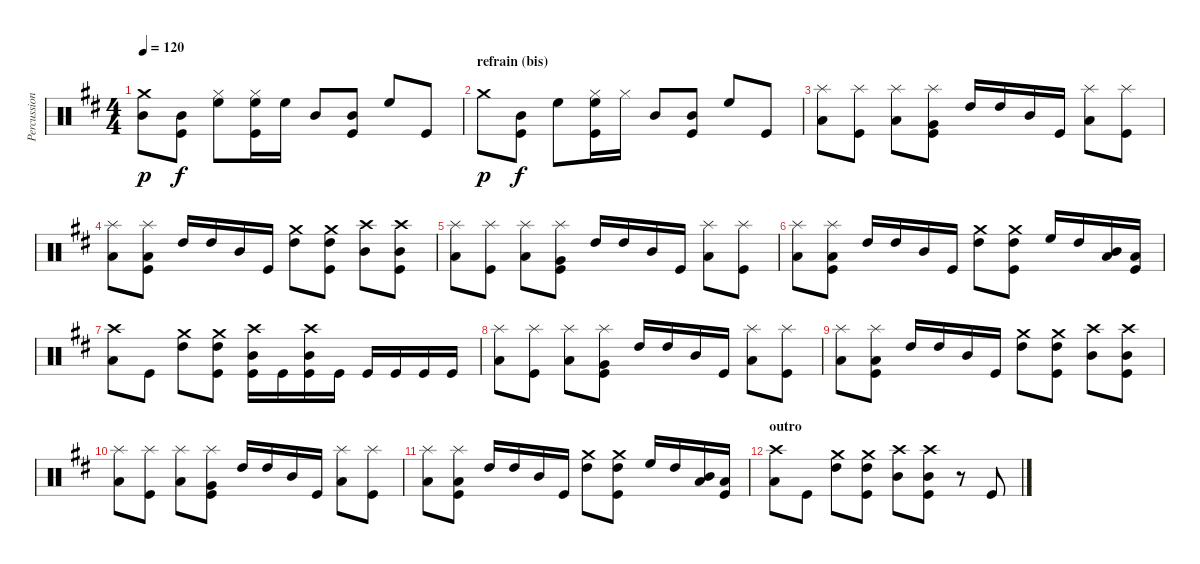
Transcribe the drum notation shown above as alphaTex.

\track ("Percussions" "Percussion") {instrument percussion}
\staff {score}
\articulation defaults
\ts (4 4)
\tempo 120
\clef neutral
\ks d
("Crash medium (hit)" "Mid Tom (hit)").8{dy p} ("Mid Tom (hit)" "Kick (hit)").8{dy f} ("Hi-Hat (closed)" "High Floor Tom (hit)").8 ("Hi-Hat (closed)" "High Floor Tom (hit)" "Kick (hit)").16 "High Floor Tom (hit)".16 "Mid Tom (hit)".8 ("Mid Tom (hit)" "Kick (hit)").8 "High Floor Tom (hit)".8 "Kick (hit)".8 |
\section ("" "refrain (bis)")
"Crash medium (hit)".8{dy p} ("Mid Tom (hit)" "Kick (hit)").8{dy f} "High Floor Tom (hit)".8 ("Hi-Hat (closed)" "High Floor Tom (hit)" "Kick (hit)").16 "Hi-Hat (closed)".16 "Mid Tom (hit)".8 ("Mid Tom (hit)" "Kick (hit)").8 "High Floor Tom (hit)".8 "Kick (hit)".8 |
("Splash (hit)" "Low Floor Tom (hit)").8 ("Splash (hit)" "Kick (hit)").8 ("Splash (hit)" "Low Floor Tom (hit)").8 ("Splash (hit)" "Very Low Tom (hit)" "Kick (hit)").8 "High Tom (hit)".16 "High Tom (hit)".16 "Mid Tom (hit)".16 "Kick (hit)".16 ("Splash (hit)" "Low Floor Tom (hit)").8 ("Splash (hit)" "Kick (hit)").8 |
("Splash (hit)" "Low Floor Tom (hit)").8 ("Splash (hit)" "Low Tom (hit)" "Kick (hit)").8 "High Tom (hit)".16 "High Tom (hit)".16 "Mid Tom (hit)".16 "Kick (hit)".16 ("Crash medium (hit)" "High Tom (hit)").8 ("Crash medium (hit)" "High Tom (hit)" "Kick (hit)").8 ("Crash high (hit)" "Mid Tom (hit)").8 ("Crash high (hit)" "Mid Tom (hit)" "Kick (hit)").8 |
("Splash (hit)" "Low Floor Tom (hit)").8 ("Splash (hit)" "Kick (hit)").8 ("Splash (hit)" "Low Floor Tom (hit)").8 ("Splash (hit)" "Very Low Tom (hit)" "Kick (hit)").8 "High Tom (hit)".16 "High Tom (hit)".16 "Mid Tom (hit)".16 "Kick (hit)".16 ("Splash (hit)" "Low Floor Tom (hit)").8 ("Splash (hit)" "Kick (hit)").8 |
("Splash (hit)" "Low Floor Tom (hit)").8 ("Splash (hit)" "Low Tom (hit)" "Kick (hit)").8 "High Tom (hit)".16 "High Tom (hit)".16 "Mid Tom (hit)".16 "Kick (hit)".16 ("Crash medium (hit)" "High Tom (hit)").8 ("Crash medium (hit)" "High Tom (hit)" "Kick (hit)").8 "High Floor Tom (hit)".16 "High Tom (hit)".16 ("Low Floor Tom (hit)" "Mid Tom (hit)").16 ("Low Tom (hit)" "Kick (hit)").16 |
("Crash high (hit)" "Low Floor Tom (hit)").8 "Kick (hit)".8 ("Crash medium (hit)" "High Tom (hit)").8 ("Crash medium (hit)" "High Tom (hit)" "Kick (hit)").8 ("Crash high (hit)" "Mid Tom (hit)" "Kick (hit)").16 "Kick (hit)".16 ("Crash high (hit)" "Mid Tom (hit)" "Kick (hit)").16 "Kick (hit)".16 "Kick (hit)".16 "Kick (hit)".16 "Kick (hit)".16 "Kick (hit)".16 |
("Splash (hit)" "Low Floor Tom (hit)").8 ("Splash (hit)" "Kick (hit)").8 ("Splash (hit)" "Low Floor Tom (hit)").8 ("Splash (hit)" "Very Low Tom (hit)" "Kick (hit)").8 "High Tom (hit)".16 "High Tom (hit)".16 "Mid Tom (hit)".16 "Kick (hit)".16 ("Splash (hit)" "Low Floor Tom (hit)").8 ("Splash (hit)" "Kick (hit)").8 |
("Splash (hit)" "Low Floor Tom (hit)").8 ("Splash (hit)" "Low Tom (hit)" "Kick (hit)").8 "High Tom (hit)".16 "High Tom (hit)".16 "Mid Tom (hit)".16 "Kick (hit)".16 ("Crash medium (hit)" "High Tom (hit)").8 ("Crash medium (hit)" "High Tom (hit)" "Kick (hit)").8 ("Crash high (hit)" "Mid Tom (hit)").8 ("Crash high (hit)" "Mid Tom (hit)" "Kick (hit)").8 |
("Splash (hit)" "Low Floor Tom (hit)").8 ("Splash (hit)" "Kick (hit)").8 ("Splash (hit)" "Low Floor Tom (hit)").8 ("Splash (hit)" "Very Low Tom (hit)" "Kick (hit)").8 "High Tom (hit)".16 "High Tom (hit)".16 "Mid Tom (hit)".16 "Kick (hit)".16 ("Splash (hit)" "Low Floor Tom (hit)").8 ("Splash (hit)" "Kick (hit)").8 |
("Splash (hit)" "Low Floor Tom (hit)").8 ("Splash (hit)" "Low Tom (hit)" "Kick (hit)").8 "High Tom (hit)".16 "High Tom (hit)".16 "Mid Tom (hit)".16 "Kick (hit)".16 ("Crash medium (hit)" "High Tom (hit)").8 ("Crash medium (hit)" "High Tom (hit)" "Kick (hit)").8 "High Floor Tom (hit)".16 "High Tom (hit)".16 ("Low Floor Tom (hit)" "Mid Tom (hit)").16 ("Low Tom (hit)" "Kick (hit)").16 |
\section ("" "outro")
("Crash high (hit)" "Low Floor Tom (hit)").8{volume 0} "Kick (hit)".8 ("Crash medium (hit)" "High Tom (hit)").8 ("Crash medium (hit)" "High Tom (hit)" "Kick (hit)").8 ("Crash high (hit)" "Mid Tom (hit)").8 ("Crash high (hit)" "Mid Tom (hit)" "Kick (hit)").8 r.8 "Kick (hit)".8
